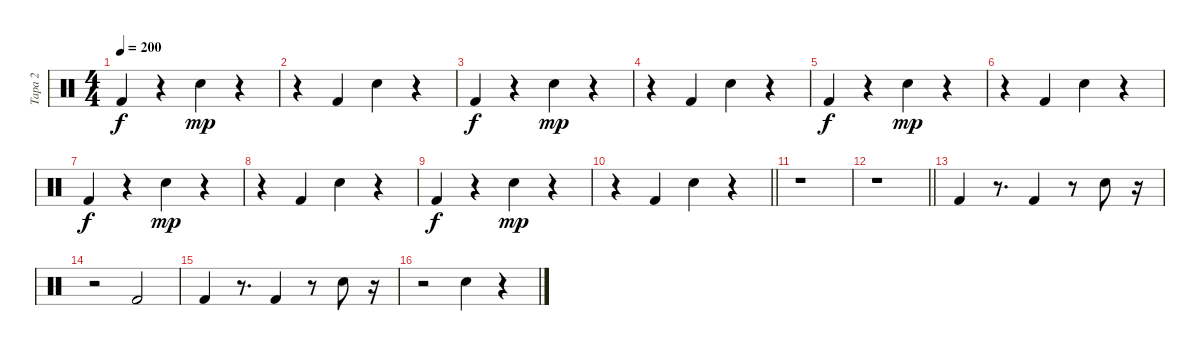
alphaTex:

\track ("Tapa 2" "Tapa 2") {instrument percussion}
\staff {score}
\articulation defaults
\ts (4 4)
\tempo 200
\clef neutral
\ks c "Kick (hit) 2".4{dy f}
r.4 "Snare (hit) 2".4{dy mp} r.4 |
r.4 "Kick (hit) 2".4 "Snare (hit) 2".4 r.4 |
"Kick (hit) 2".4{dy f} r.4 "Snare (hit) 2".4{dy mp} r.4 |
r.4 "Kick (hit) 2".4 "Snare (hit) 2".4 r.4 |
"Kick (hit) 2".4{dy f} r.4 "Snare (hit) 2".4{dy mp} r.4 |
r.4 "Kick (hit) 2".4 "Snare (hit) 2".4 r.4 |
"Kick (hit) 2".4{dy f} r.4 "Snare (hit) 2".4{dy mp} r.4 |
r.4 "Kick (hit) 2".4 "Snare (hit) 2".4 r.4 |
"Kick (hit) 2".4{dy f} r.4 "Snare (hit) 2".4{dy mp} r.4 |
\barLineRight lightlight
r.4 "Kick (hit) 2".4 "Snare (hit) 2".4 r.4 |
r.1 |
\barLineRight lightlight
r.1 |
"Kick (hit) 2".4 r.8{d} "Kick (hit) 2".4 r.8 "Snare (hit) 2".8 r.16 |
r.2 "Kick (hit) 2".2 |
"Kick (hit) 2".4 r.8{d} "Kick (hit) 2".4 r.8 "Snare (hit) 2".8 r.16 |
r.2 "Snare (hit) 2".4 r.4
